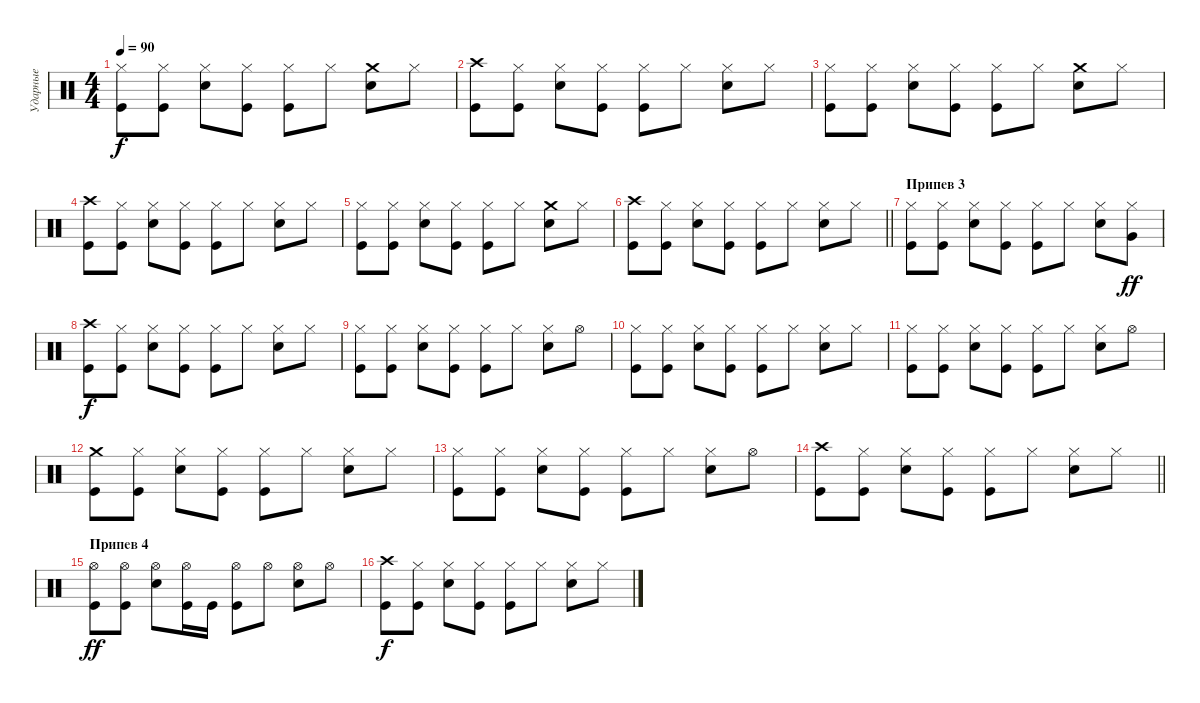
\track ("Ударные" "Ударные") {instrument percussion}
\staff {score}
\articulation defaults
\ts (4 4)
\tempo 90
\clef neutral
\ks c
("Hi-Hat (closed)" "Kick (hit)").8{dy f} ("Hi-Hat (closed)" "Kick (hit)").8 ("Hi-Hat (closed)" "Snare (hit) 2").8 ("Hi-Hat (closed)" "Kick (hit)").8 ("Hi-Hat (closed)" "Kick (hit)").8 "Hi-Hat (closed)".8 ("Crash medium (hit)" "Snare (hit) 2").8 "Hi-Hat (closed)".8 |
("Crash high (hit)" "Kick (hit)").8 ("Hi-Hat (closed)" "Kick (hit)").8 ("Hi-Hat (closed)" "Snare (hit) 2").8 ("Hi-Hat (closed)" "Kick (hit)").8 ("Hi-Hat (closed)" "Kick (hit)").8 "Hi-Hat (closed)".8 ("Hi-Hat (closed)" "Snare (hit) 2").8 "Hi-Hat (closed)".8 |
("Hi-Hat (closed)" "Kick (hit)").8 ("Hi-Hat (closed)" "Kick (hit)").8 ("Hi-Hat (closed)" "Snare (hit) 2").8 ("Hi-Hat (closed)" "Kick (hit)").8 ("Hi-Hat (closed)" "Kick (hit)").8 "Hi-Hat (closed)".8 ("Crash medium (hit)" "Snare (hit) 2").8 "Hi-Hat (closed)".8 |
("Crash high (hit)" "Kick (hit)").8 ("Hi-Hat (closed)" "Kick (hit)").8 ("Hi-Hat (closed)" "Snare (hit) 2").8 ("Hi-Hat (closed)" "Kick (hit)").8 ("Hi-Hat (closed)" "Kick (hit)").8 "Hi-Hat (closed)".8 ("Hi-Hat (closed)" "Snare (hit) 2").8 "Hi-Hat (closed)".8 |
("Hi-Hat (closed)" "Kick (hit)").8 ("Hi-Hat (closed)" "Kick (hit)").8 ("Hi-Hat (closed)" "Snare (hit) 2").8 ("Hi-Hat (closed)" "Kick (hit)").8 ("Hi-Hat (closed)" "Kick (hit)").8 "Hi-Hat (closed)".8 ("Crash medium (hit)" "Snare (hit) 2").8 "Hi-Hat (closed)".8 |
\barLineRight lightlight
("Crash high (hit)" "Kick (hit)").8 ("Hi-Hat (closed)" "Kick (hit)").8 ("Hi-Hat (closed)" "Snare (hit) 2").8 ("Hi-Hat (closed)" "Kick (hit)").8 ("Hi-Hat (closed)" "Kick (hit)").8 "Hi-Hat (closed)".8 ("Hi-Hat (closed)" "Snare (hit) 2").8 "Hi-Hat (closed)".8 |
\section ("" "Припев 3")
("Hi-Hat (closed)" "Kick (hit)").8 ("Hi-Hat (closed)" "Kick (hit)").8 ("Hi-Hat (closed)" "Snare (hit) 2").8 ("Hi-Hat (closed)" "Kick (hit)").8 ("Hi-Hat (closed)" "Kick (hit)").8 "Hi-Hat (closed)".8 ("Hi-Hat (closed)" "Snare (hit) 2").8 ("Hi-Hat (closed)" "Very Low Tom (hit)").8{dy ff} |
("Crash high (hit)" "Kick (hit)").8{dy f} ("Hi-Hat (closed)" "Kick (hit)").8 ("Hi-Hat (closed)" "Snare (hit) 2").8 ("Hi-Hat (closed)" "Kick (hit)").8 ("Hi-Hat (closed)" "Kick (hit)").8 "Hi-Hat (closed)".8 ("Hi-Hat (closed)" "Snare (hit) 2").8 "Hi-Hat (closed)".8 |
("Hi-Hat (closed)" "Kick (hit)").8 ("Hi-Hat (closed)" "Kick (hit)").8 ("Hi-Hat (closed)" "Snare (hit) 2").8 ("Hi-Hat (closed)" "Kick (hit)").8 ("Hi-Hat (closed)" "Kick (hit)").8 "Hi-Hat (closed)".8 ("Hi-Hat (closed)" "Snare (hit) 2").8 "Hi-Hat (open)".8 |
("Hi-Hat (closed)" "Kick (hit)").8 ("Hi-Hat (closed)" "Kick (hit)").8 ("Hi-Hat (closed)" "Snare (hit) 2").8 ("Hi-Hat (closed)" "Kick (hit)").8 ("Hi-Hat (closed)" "Kick (hit)").8 "Hi-Hat (closed)".8 ("Hi-Hat (closed)" "Snare (hit) 2").8 "Hi-Hat (closed)".8 |
("Hi-Hat (closed)" "Kick (hit)").8 ("Hi-Hat (closed)" "Kick (hit)").8 ("Hi-Hat (closed)" "Snare (hit) 2").8 ("Hi-Hat (closed)" "Kick (hit)").8 ("Hi-Hat (closed)" "Kick (hit)").8 "Hi-Hat (closed)".8 ("Hi-Hat (closed)" "Snare (hit) 2").8 "Hi-Hat (open)".8 |
("Crash medium (hit)" "Kick (hit)").8 ("Hi-Hat (closed)" "Kick (hit)").8 ("Hi-Hat (closed)" "Snare (hit) 2").8 ("Hi-Hat (closed)" "Kick (hit)").8 ("Hi-Hat (closed)" "Kick (hit)").8 "Hi-Hat (closed)".8 ("Hi-Hat (closed)" "Snare (hit) 2").8 "Hi-Hat (closed)".8 |
("Hi-Hat (closed)" "Kick (hit)").8 ("Hi-Hat (closed)" "Kick (hit)").8 ("Hi-Hat (closed)" "Snare (hit) 2").8 ("Hi-Hat (closed)" "Kick (hit)").8 ("Hi-Hat (closed)" "Kick (hit)").8 "Hi-Hat (closed)".8 ("Hi-Hat (closed)" "Snare (hit) 2").8 "Hi-Hat (open)".8 |
\barLineRight lightlight
("Crash high (hit)" "Kick (hit)").8 ("Hi-Hat (closed)" "Kick (hit)").8 ("Hi-Hat (closed)" "Snare (hit) 2").8 ("Hi-Hat (closed)" "Kick (hit)").8 ("Hi-Hat (closed)" "Kick (hit)").8 "Hi-Hat (closed)".8 ("Hi-Hat (closed)" "Snare (hit) 2").8 "Hi-Hat (closed)".8 |
\section ("" "Припев 4")
("Hi-Hat (open)" "Kick (hit)").8{dy ff} ("Hi-Hat (open)" "Kick (hit)").8 ("Hi-Hat (open)" "Snare (hit) 2").8 ("Hi-Hat (open)" "Kick (hit)").16 "Kick (hit)".16 ("Hi-Hat (open)" "Kick (hit)").8 "Hi-Hat (open)".8 ("Hi-Hat (open)" "Snare (hit) 2").8 "Hi-Hat (open)".8 |
("Crash high (hit)" "Kick (hit)").8{dy f} ("Hi-Hat (closed)" "Kick (hit)").8 ("Hi-Hat (closed)" "Snare (hit) 2").8 ("Hi-Hat (closed)" "Kick (hit)").8 ("Hi-Hat (closed)" "Kick (hit)").8 "Hi-Hat (closed)".8 ("Hi-Hat (closed)" "Snare (hit) 2").8 "Hi-Hat (closed)".8
